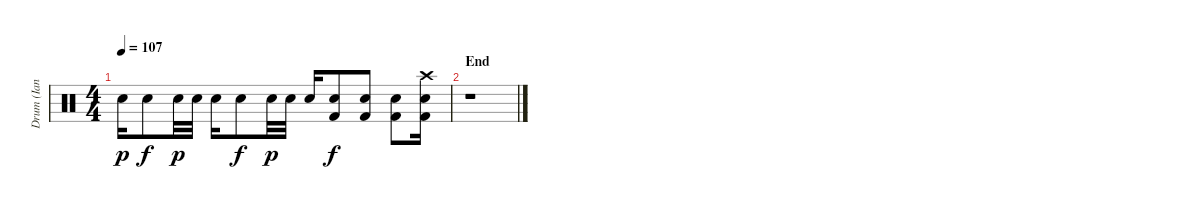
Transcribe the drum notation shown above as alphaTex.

\track ("Drum (Ian Paice)" "Drum (Ian ") {instrument percussion}
\staff {score}
\articulation defaults
\ts (4 4)
\tempo 107
\clef neutral
\ks c "Snare (hit) 2".16{dy p} "Snare (hit) 2".8{dy f} "Snare (hit) 2".32{dy p} "Snare (hit) 2".32 "Snare (hit) 2".16 "Snare (hit) 2".8{dy f} "Snare (hit) 2".32{dy p} "Snare (hit) 2".32 "Snare (hit) 2".16
("Snare (hit) 2" "Kick (hit) 2").8{dy f} ("Snare (hit) 2" "Kick (hit) 2").8 ("Snare (hit) 2" "Kick (hit) 2").8 ("Crash high (hit)" "Snare (hit) 2" "Kick (hit) 2").16 |
\section ("" "End")
r.1
